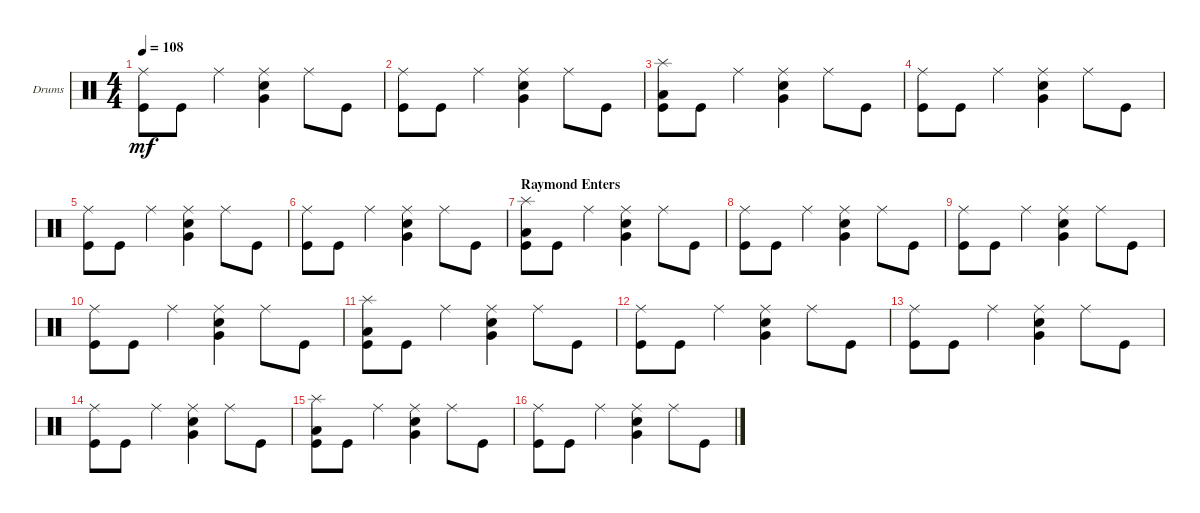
\bracketExtendMode groupsimilarinstruments
\firstSystemTrackNameOrientation horizontal
\otherSystemsTrackNameOrientation horizontal
\track ("Drumkit" "Drums") {instrument percussion}
\staff {score}
\articulation defaults
\ts (4 4)
\tempo 108
\clef neutral
\ks c
("Ride (middle)" "Kick (hit)").8{dy mf} "Kick (hit)".8 "Ride (middle)".4 ("Snare (hit) 2" "Ride (middle)" "Very Low Tom (hit)").4 "Ride (middle)".8 "Kick (hit)".8 |
("Ride (middle)" "Kick (hit)").8 "Kick (hit)".8 "Ride (middle)".4 ("Snare (hit) 2" "Ride (middle)" "Very Low Tom (hit)").4 "Ride (middle)".8 "Kick (hit)".8 |
("Kick (hit)" "Low Tom (hit)" "Splash (hit)").8 "Kick (hit)".8 "Ride (middle)".4 ("Snare (hit) 2" "Ride (middle)" "Very Low Tom (hit)").4 "Ride (middle)".8 "Kick (hit)".8 |
("Ride (middle)" "Kick (hit)").8 "Kick (hit)".8 "Ride (middle)".4 ("Snare (hit) 2" "Ride (middle)" "Very Low Tom (hit)").4 "Ride (middle)".8 "Kick (hit)".8 |
("Ride (middle)" "Kick (hit)").8 "Kick (hit)".8 "Ride (middle)".4 ("Snare (hit) 2" "Ride (middle)" "Very Low Tom (hit)").4 "Ride (middle)".8 "Kick (hit)".8 |
("Ride (middle)" "Kick (hit)").8 "Kick (hit)".8 "Ride (middle)".4 ("Snare (hit) 2" "Ride (middle)" "Very Low Tom (hit)").4 "Ride (middle)".8 "Kick (hit)".8 |
\section ("" "Raymond Enters")
("Kick (hit)" "Low Tom (hit)" "Splash (hit)").8 "Kick (hit)".8 "Ride (middle)".4 ("Snare (hit) 2" "Ride (middle)" "Very Low Tom (hit)").4 "Ride (middle)".8 "Kick (hit)".8 |
("Ride (middle)" "Kick (hit)").8 "Kick (hit)".8 "Ride (middle)".4 ("Snare (hit) 2" "Ride (middle)" "Very Low Tom (hit)").4 "Ride (middle)".8 "Kick (hit)".8 |
("Ride (middle)" "Kick (hit)").8 "Kick (hit)".8 "Ride (middle)".4 ("Snare (hit) 2" "Ride (middle)" "Very Low Tom (hit)").4 "Ride (middle)".8 "Kick (hit)".8 |
("Ride (middle)" "Kick (hit)").8 "Kick (hit)".8 "Ride (middle)".4 ("Snare (hit) 2" "Ride (middle)" "Very Low Tom (hit)").4 "Ride (middle)".8 "Kick (hit)".8 |
("Kick (hit)" "Low Tom (hit)" "Splash (hit)").8 "Kick (hit)".8 "Ride (middle)".4 ("Snare (hit) 2" "Ride (middle)" "Very Low Tom (hit)").4 "Ride (middle)".8 "Kick (hit)".8 |
("Ride (middle)" "Kick (hit)").8 "Kick (hit)".8 "Ride (middle)".4 ("Snare (hit) 2" "Ride (middle)" "Very Low Tom (hit)").4 "Ride (middle)".8 "Kick (hit)".8 |
("Ride (middle)" "Kick (hit)").8 "Kick (hit)".8 "Ride (middle)".4 ("Snare (hit) 2" "Ride (middle)" "Very Low Tom (hit)").4 "Ride (middle)".8 "Kick (hit)".8 |
("Ride (middle)" "Kick (hit)").8 "Kick (hit)".8 "Ride (middle)".4 ("Snare (hit) 2" "Ride (middle)" "Very Low Tom (hit)").4 "Ride (middle)".8 "Kick (hit)".8 |
("Kick (hit)" "Low Tom (hit)" "Splash (hit)").8 "Kick (hit)".8 "Ride (middle)".4 ("Snare (hit) 2" "Ride (middle)" "Very Low Tom (hit)").4 "Ride (middle)".8 "Kick (hit)".8 |
("Ride (middle)" "Kick (hit)").8 "Kick (hit)".8 "Ride (middle)".4 ("Snare (hit) 2" "Ride (middle)" "Very Low Tom (hit)").4 "Ride (middle)".8 "Kick (hit)".8
